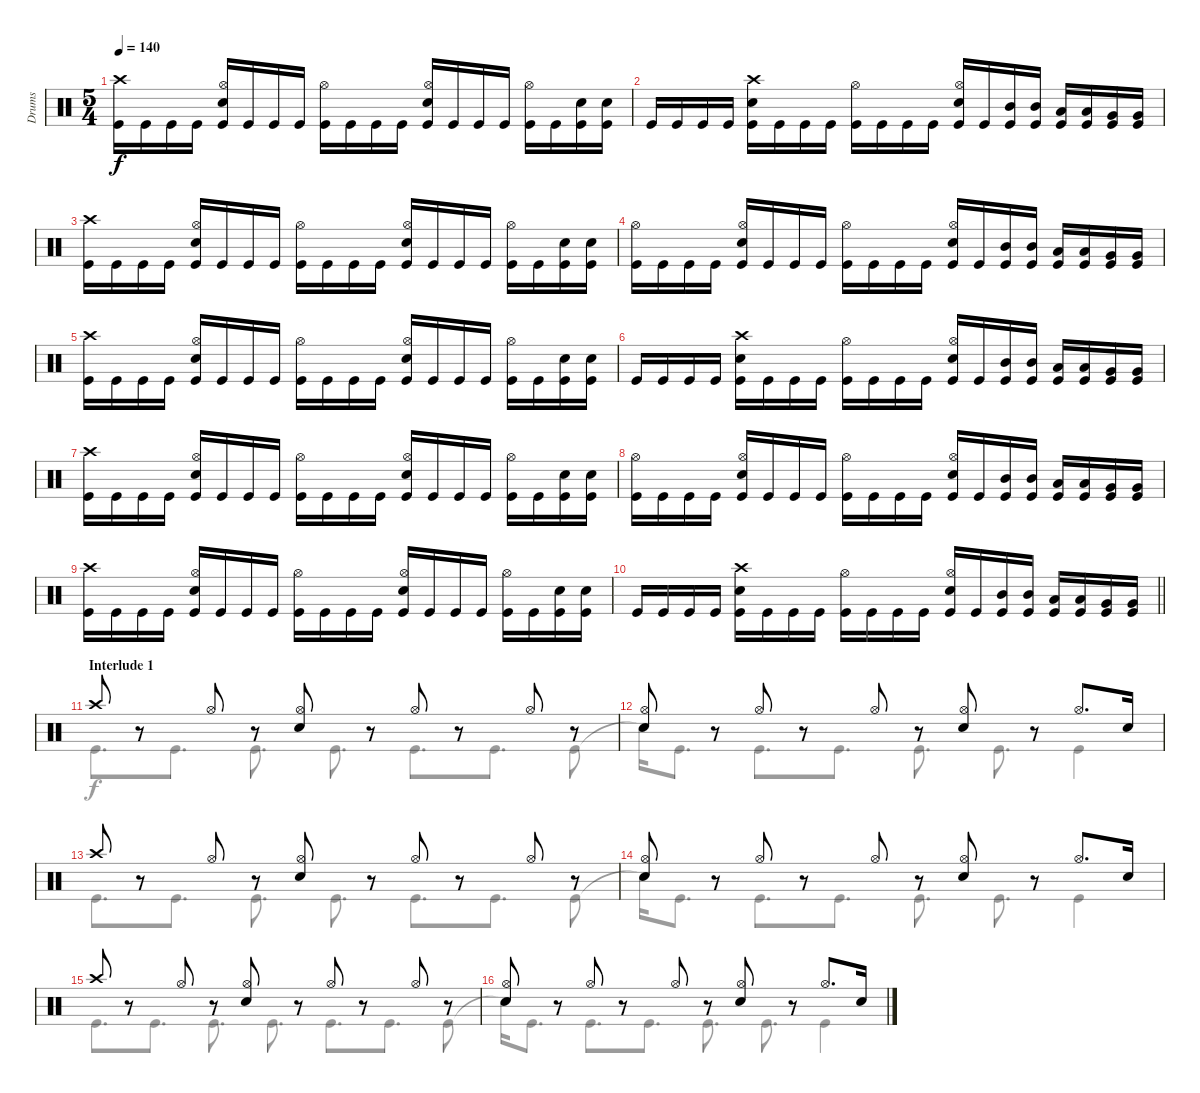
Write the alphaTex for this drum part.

\track ("Drums" "Drums") {instrument percussion}
\staff {score}
\articulation defaults
\voice
\ts (5 4)
\tempo 140
\clef neutral
\ks c
("Crash high (hit)" "Kick (hit)").16{dy f} "Kick (hit)".16 "Kick (hit)".16 "Kick (hit)".16 ("Hi-Hat (open)" "Snare (hit) 2" "Kick (hit)").16 "Kick (hit)".16 "Kick (hit)".16 "Kick (hit)".16 ("Hi-Hat (open)" "Kick (hit)").16 "Kick (hit)".16 "Kick (hit)".16 "Kick (hit)".16 ("Hi-Hat (open)" "Snare (hit) 2" "Kick (hit)").16 "Kick (hit)".16 "Kick (hit)".16 "Kick (hit)".16 ("Hi-Hat (open)" "Kick (hit)").16 "Kick (hit)".16 ("Snare (hit) 2" "Kick (hit)").16 ("Snare (hit) 2" "Kick (hit)").16 |
"Kick (hit)".16 "Kick (hit)".16 "Kick (hit)".16 "Kick (hit)".16 ("Crash high (hit)" "Snare (hit) 2" "Kick (hit)").16 "Kick (hit)".16 "Kick (hit)".16 "Kick (hit)".16 ("Hi-Hat (open)" "Kick (hit)").16 "Kick (hit)".16 "Kick (hit)".16 "Kick (hit)".16 ("Hi-Hat (open)" "Snare (hit) 2" "Kick (hit)").16 "Kick (hit)".16 ("Mid Tom (hit)" "Kick (hit)").16 ("Mid Tom (hit)" "Kick (hit)").16 ("Low Tom (hit)" "Kick (hit)").16 ("Low Tom (hit)" "Kick (hit)").16 ("Very Low Tom (hit)" "Kick (hit)").16 ("Very Low Tom (hit)" "Kick (hit)").16 |
("Crash high (hit)" "Kick (hit)").16 "Kick (hit)".16 "Kick (hit)".16 "Kick (hit)".16 ("Hi-Hat (open)" "Snare (hit) 2" "Kick (hit)").16 "Kick (hit)".16 "Kick (hit)".16 "Kick (hit)".16 ("Hi-Hat (open)" "Kick (hit)").16 "Kick (hit)".16 "Kick (hit)".16 "Kick (hit)".16 ("Hi-Hat (open)" "Snare (hit) 2" "Kick (hit)").16 "Kick (hit)".16 "Kick (hit)".16 "Kick (hit)".16 ("Hi-Hat (open)" "Kick (hit)").16 "Kick (hit)".16 ("Snare (hit) 2" "Kick (hit)").16 ("Snare (hit) 2" "Kick (hit)").16 |
("Hi-Hat (open)" "Kick (hit)").16 "Kick (hit)".16 "Kick (hit)".16 "Kick (hit)".16 ("Hi-Hat (open)" "Snare (hit) 2" "Kick (hit)").16 "Kick (hit)".16 "Kick (hit)".16 "Kick (hit)".16 ("Hi-Hat (open)" "Kick (hit)").16 "Kick (hit)".16 "Kick (hit)".16 "Kick (hit)".16 ("Hi-Hat (open)" "Snare (hit) 2" "Kick (hit)").16 "Kick (hit)".16 ("Mid Tom (hit)" "Kick (hit)").16 ("Mid Tom (hit)" "Kick (hit)").16 ("Low Tom (hit)" "Kick (hit)").16 ("Low Tom (hit)" "Kick (hit)").16 ("Very Low Tom (hit)" "Kick (hit)").16 ("Very Low Tom (hit)" "Kick (hit)").16 |
("Crash high (hit)" "Kick (hit)").16 "Kick (hit)".16 "Kick (hit)".16 "Kick (hit)".16 ("Hi-Hat (open)" "Snare (hit) 2" "Kick (hit)").16 "Kick (hit)".16 "Kick (hit)".16 "Kick (hit)".16 ("Hi-Hat (open)" "Kick (hit)").16 "Kick (hit)".16 "Kick (hit)".16 "Kick (hit)".16 ("Hi-Hat (open)" "Snare (hit) 2" "Kick (hit)").16 "Kick (hit)".16 "Kick (hit)".16 "Kick (hit)".16 ("Hi-Hat (open)" "Kick (hit)").16 "Kick (hit)".16 ("Snare (hit) 2" "Kick (hit)").16 ("Snare (hit) 2" "Kick (hit)").16 |
"Kick (hit)".16 "Kick (hit)".16 "Kick (hit)".16 "Kick (hit)".16 ("Crash high (hit)" "Snare (hit) 2" "Kick (hit)").16 "Kick (hit)".16 "Kick (hit)".16 "Kick (hit)".16 ("Hi-Hat (open)" "Kick (hit)").16 "Kick (hit)".16 "Kick (hit)".16 "Kick (hit)".16 ("Hi-Hat (open)" "Snare (hit) 2" "Kick (hit)").16 "Kick (hit)".16 ("Mid Tom (hit)" "Kick (hit)").16 ("Mid Tom (hit)" "Kick (hit)").16 ("Low Tom (hit)" "Kick (hit)").16 ("Low Tom (hit)" "Kick (hit)").16 ("Very Low Tom (hit)" "Kick (hit)").16 ("Very Low Tom (hit)" "Kick (hit)").16 |
("Crash high (hit)" "Kick (hit)").16 "Kick (hit)".16 "Kick (hit)".16 "Kick (hit)".16 ("Hi-Hat (open)" "Snare (hit) 2" "Kick (hit)").16 "Kick (hit)".16 "Kick (hit)".16 "Kick (hit)".16 ("Hi-Hat (open)" "Kick (hit)").16 "Kick (hit)".16 "Kick (hit)".16 "Kick (hit)".16 ("Hi-Hat (open)" "Snare (hit) 2" "Kick (hit)").16 "Kick (hit)".16 "Kick (hit)".16 "Kick (hit)".16 ("Hi-Hat (open)" "Kick (hit)").16 "Kick (hit)".16 ("Snare (hit) 2" "Kick (hit)").16 ("Snare (hit) 2" "Kick (hit)").16 |
("Hi-Hat (open)" "Kick (hit)").16 "Kick (hit)".16 "Kick (hit)".16 "Kick (hit)".16 ("Hi-Hat (open)" "Snare (hit) 2" "Kick (hit)").16 "Kick (hit)".16 "Kick (hit)".16 "Kick (hit)".16 ("Hi-Hat (open)" "Kick (hit)").16 "Kick (hit)".16 "Kick (hit)".16 "Kick (hit)".16 ("Hi-Hat (open)" "Snare (hit) 2" "Kick (hit)").16 "Kick (hit)".16 ("Mid Tom (hit)" "Kick (hit)").16 ("Mid Tom (hit)" "Kick (hit)").16 ("Low Tom (hit)" "Kick (hit)").16 ("Low Tom (hit)" "Kick (hit)").16 ("Very Low Tom (hit)" "Kick (hit)").16 ("Very Low Tom (hit)" "Kick (hit)").16 |
("Crash high (hit)" "Kick (hit)").16 "Kick (hit)".16 "Kick (hit)".16 "Kick (hit)".16 ("Hi-Hat (open)" "Snare (hit) 2" "Kick (hit)").16 "Kick (hit)".16 "Kick (hit)".16 "Kick (hit)".16 ("Hi-Hat (open)" "Kick (hit)").16 "Kick (hit)".16 "Kick (hit)".16 "Kick (hit)".16 ("Hi-Hat (open)" "Snare (hit) 2" "Kick (hit)").16 "Kick (hit)".16 "Kick (hit)".16 "Kick (hit)".16 ("Hi-Hat (open)" "Kick (hit)").16 "Kick (hit)".16 ("Snare (hit) 2" "Kick (hit)").16 ("Snare (hit) 2" "Kick (hit)").16 |
\barLineRight lightlight "Kick (hit)".16 "Kick (hit)".16 "Kick (hit)".16 "Kick (hit)".16
("Crash high (hit)" "Snare (hit) 2" "Kick (hit)").16 "Kick (hit)".16 "Kick (hit)".16 "Kick (hit)".16 ("Hi-Hat (open)" "Kick (hit)").16 "Kick (hit)".16 "Kick (hit)".16 "Kick (hit)".16 ("Hi-Hat (open)" "Snare (hit) 2" "Kick (hit)").16 "Kick (hit)".16 ("Mid Tom (hit)" "Kick (hit)").16 ("Mid Tom (hit)" "Kick (hit)").16 ("Low Tom (hit)" "Kick (hit)").16 ("Low Tom (hit)" "Kick (hit)").16 ("Very Low Tom (hit)" "Kick (hit)").16 ("Very Low Tom (hit)" "Kick (hit)").16 |
\section ("" "Interlude 1")
"Crash high (hit)".8 r.8 "Hi-Hat (open)".8 r.8 ("Hi-Hat (open)" "Snare (hit) 2").8 r.8 "Hi-Hat (open)".8 r.8 "Hi-Hat (open)".8 r.8 |
("Hi-Hat (open)" "Snare (hit) 2").8 r.8 "Hi-Hat (open)".8 r.8 "Hi-Hat (open)".8 r.8 ("Hi-Hat (open)" "Snare (hit) 2").8 r.8 "Hi-Hat (open)".8{d} "Snare (hit) 2".16 |
"Crash high (hit)".8 r.8 "Hi-Hat (open)".8 r.8 ("Hi-Hat (open)" "Snare (hit) 2").8 r.8 "Hi-Hat (open)".8 r.8 "Hi-Hat (open)".8 r.8 |
("Hi-Hat (open)" "Snare (hit) 2").8 r.8 "Hi-Hat (open)".8 r.8 "Hi-Hat (open)".8 r.8 ("Hi-Hat (open)" "Snare (hit) 2").8 r.8 "Hi-Hat (open)".8{d} "Snare (hit) 2".16 |
"Crash high (hit)".8 r.8 "Hi-Hat (open)".8 r.8 ("Hi-Hat (open)" "Snare (hit) 2").8 r.8 "Hi-Hat (open)".8 r.8 "Hi-Hat (open)".8 r.8 |
("Hi-Hat (open)" "Snare (hit) 2").8 r.8 "Hi-Hat (open)".8 r.8 "Hi-Hat (open)".8 r.8 ("Hi-Hat (open)" "Snare (hit) 2").8 r.8 "Hi-Hat (open)".8{d} "Snare (hit) 2".16
\voice
\clef neutral
\ottava regular
\simile none
\ks c
|
|
|
|
|
|
|
|
|
\barLineRight lightlight
|
"Kick (hit)".8{d} "Kick (hit)".8{d} "Kick (hit)".8{d} "Kick (hit)".8{d} "Kick (hit)".8{d} "Kick (hit)".8{d} "Kick (hit)".8 |
"Snare (hit)"{t}.16 "Kick (hit)".8{d} "Kick (hit)".8{d} "Kick (hit)".8{d} "Kick (hit)".8{d} "Kick (hit)".8{d} "Kick (hit)".4 |
"Kick (hit)".8{d} "Kick (hit)".8{d} "Kick (hit)".8{d} "Kick (hit)".8{d} "Kick (hit)".8{d} "Kick (hit)".8{d} "Kick (hit)".8 |
"Snare (hit)"{t}.16 "Kick (hit)".8{d} "Kick (hit)".8{d} "Kick (hit)".8{d} "Kick (hit)".8{d} "Kick (hit)".8{d} "Kick (hit)".4 |
"Kick (hit)".8{d} "Kick (hit)".8{d} "Kick (hit)".8{d} "Kick (hit)".8{d} "Kick (hit)".8{d} "Kick (hit)".8{d} "Kick (hit)".8 |
"Snare (hit)"{t}.16 "Kick (hit)".8{d} "Kick (hit)".8{d} "Kick (hit)".8{d} "Kick (hit)".8{d} "Kick (hit)".8{d} "Kick (hit)".4
